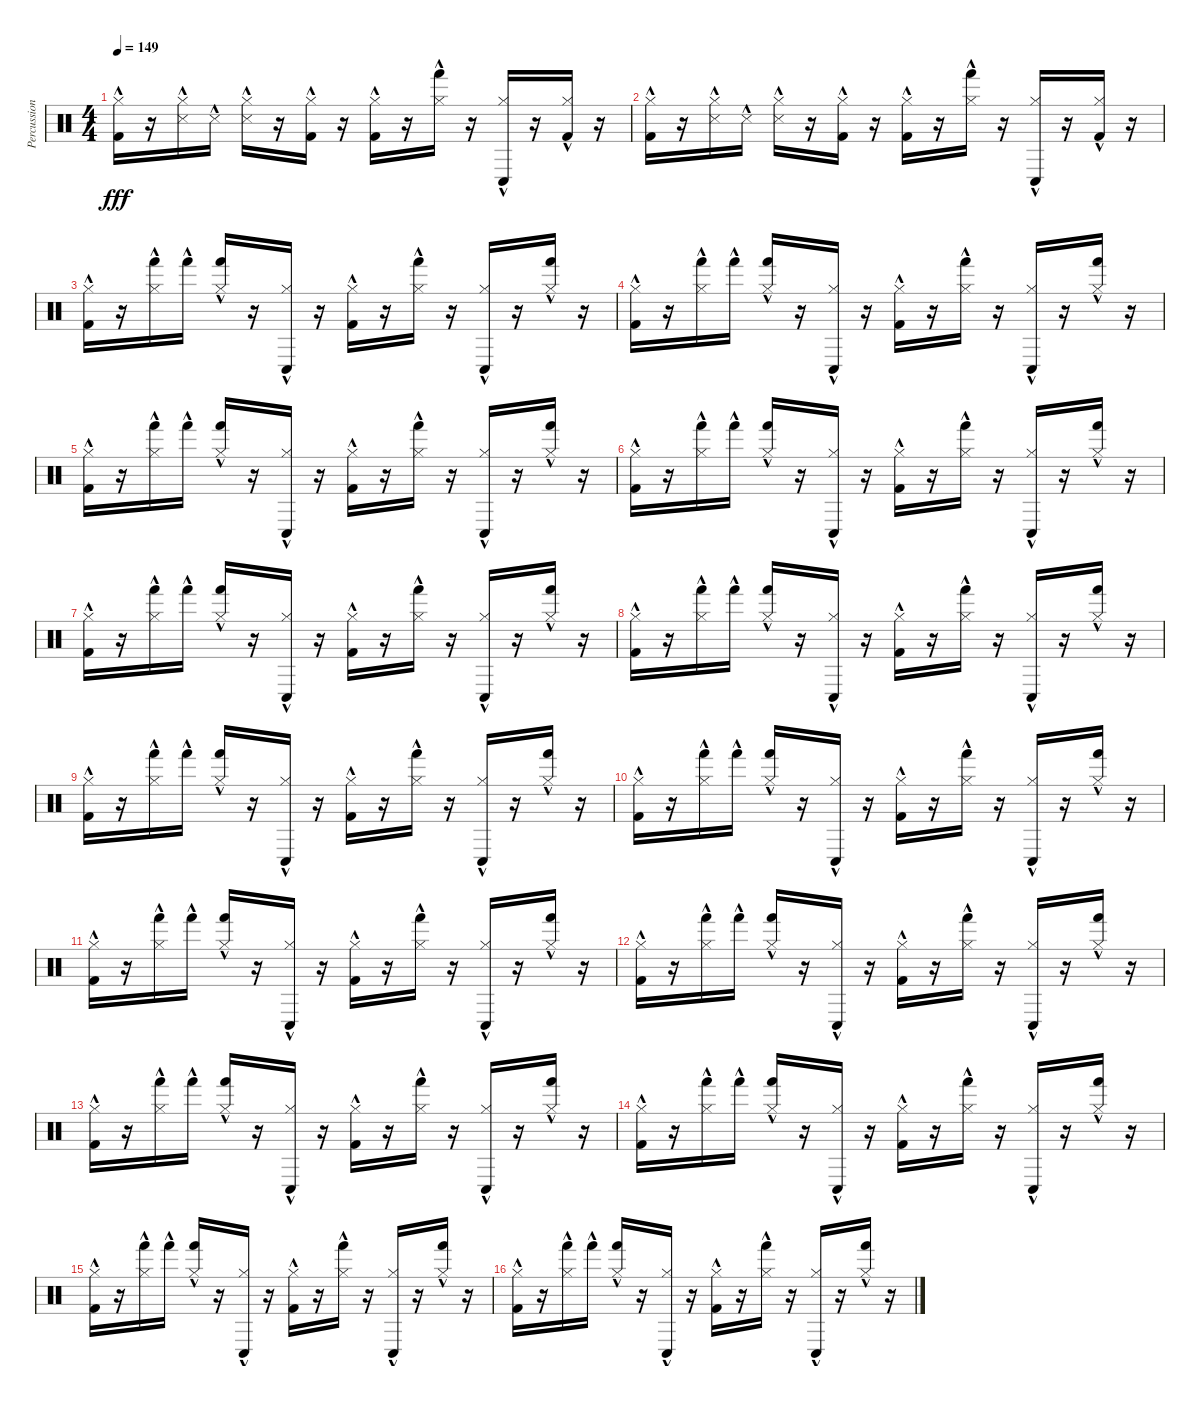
\track ("Percussion" "Percussion") {instrument percussion}
\staff {score}
\articulation defaults
\ts (4 4)
\tempo 149
\clef neutral
\ks c
("Hi-Hat (closed)"{hac} "Kick (hit) 2"{hac}).16{dy fff} r.16 ("Hi-Hat (closed)"{hac} "Snare (side stick) 3"{hac}).16 "Snare (side stick) 3"{hac}.16 ("Hi-Hat (closed)"{hac} "Snare (side stick) 3"{hac}).16 r.16 ("Hi-Hat (closed)"{hac} "Kick (hit) 2"{hac}).16 r.16 ("Hi-Hat (closed)"{hac} "Kick (hit) 2"{hac}).16 r.16 ("Hi-Hat (closed)"{hac} "Hand (hit)"{hac}).16 r.16 ("Hi-Hat (closed)"{hac} "Conga low (hit)"{hac}).16 r.16 ("Hi-Hat (closed)"{hac} "Kick (hit) 2"{hac}).16 r.16 |
("Hi-Hat (closed)"{hac} "Kick (hit) 2"{hac}).16 r.16 ("Hi-Hat (closed)"{hac} "Snare (side stick) 3"{hac}).16 "Snare (side stick) 3"{hac}.16 ("Hi-Hat (closed)"{hac} "Snare (side stick) 3"{hac}).16 r.16 ("Hi-Hat (closed)"{hac} "Kick (hit) 2"{hac}).16 r.16 ("Hi-Hat (closed)"{hac} "Kick (hit) 2"{hac}).16 r.16 ("Hi-Hat (closed)"{hac} "Hand (hit)"{hac}).16 r.16 ("Hi-Hat (closed)"{hac} "Conga low (hit)"{hac}).16 r.16 ("Hi-Hat (closed)"{hac} "Kick (hit) 2"{hac}).16 r.16 |
("Hi-Hat (closed)"{hac} "Kick (hit) 2"{hac}).16 r.16 ("Hi-Hat (closed)"{hac} "Hand (hit)"{hac}).16 "Hand (hit)"{hac}.16 ("Hi-Hat (closed)"{hac} "Hand (hit)"{hac}).16 r.16 ("Hi-Hat (closed)"{hac} "Conga low (hit)"{hac}).16 r.16 ("Hi-Hat (closed)"{hac} "Kick (hit) 2"{hac}).16 r.16 ("Hi-Hat (closed)"{hac} "Hand (hit)"{hac}).16 r.16 ("Hi-Hat (closed)"{hac} "Conga low (hit)"{hac}).16 r.16 ("Hi-Hat (closed)"{hac} "Hand (hit)"{hac}).16 r.16 |
("Hi-Hat (closed)"{hac} "Kick (hit) 2"{hac}).16 r.16 ("Hi-Hat (closed)"{hac} "Hand (hit)"{hac}).16 "Hand (hit)"{hac}.16 ("Hi-Hat (closed)"{hac} "Hand (hit)"{hac}).16 r.16 ("Hi-Hat (closed)"{hac} "Conga low (hit)"{hac}).16 r.16 ("Hi-Hat (closed)"{hac} "Kick (hit) 2"{hac}).16 r.16 ("Hi-Hat (closed)"{hac} "Hand (hit)"{hac}).16 r.16 ("Hi-Hat (closed)"{hac} "Conga low (hit)"{hac}).16 r.16 ("Hi-Hat (closed)"{hac} "Hand (hit)"{hac}).16 r.16 |
("Hi-Hat (closed)"{hac} "Kick (hit) 2"{hac}).16 r.16 ("Hi-Hat (closed)"{hac} "Hand (hit)"{hac}).16 "Hand (hit)"{hac}.16 ("Hi-Hat (closed)"{hac} "Hand (hit)"{hac}).16 r.16 ("Hi-Hat (closed)"{hac} "Conga low (hit)"{hac}).16 r.16 ("Hi-Hat (closed)"{hac} "Kick (hit) 2"{hac}).16 r.16 ("Hi-Hat (closed)"{hac} "Hand (hit)"{hac}).16 r.16 ("Hi-Hat (closed)"{hac} "Conga low (hit)"{hac}).16 r.16 ("Hi-Hat (closed)"{hac} "Hand (hit)"{hac}).16 r.16 |
("Hi-Hat (closed)"{hac} "Kick (hit) 2"{hac}).16 r.16 ("Hi-Hat (closed)"{hac} "Hand (hit)"{hac}).16 "Hand (hit)"{hac}.16 ("Hi-Hat (closed)"{hac} "Hand (hit)"{hac}).16 r.16 ("Hi-Hat (closed)"{hac} "Conga low (hit)"{hac}).16 r.16 ("Hi-Hat (closed)"{hac} "Kick (hit) 2"{hac}).16 r.16 ("Hi-Hat (closed)"{hac} "Hand (hit)"{hac}).16 r.16 ("Hi-Hat (closed)"{hac} "Conga low (hit)"{hac}).16 r.16 ("Hi-Hat (closed)"{hac} "Hand (hit)"{hac}).16 r.16 |
("Hi-Hat (closed)"{hac} "Kick (hit) 2"{hac}).16 r.16 ("Hi-Hat (closed)"{hac} "Hand (hit)"{hac}).16 "Hand (hit)"{hac}.16 ("Hi-Hat (closed)"{hac} "Hand (hit)"{hac}).16 r.16 ("Hi-Hat (closed)"{hac} "Conga low (hit)"{hac}).16 r.16 ("Hi-Hat (closed)"{hac} "Kick (hit) 2"{hac}).16 r.16 ("Hi-Hat (closed)"{hac} "Hand (hit)"{hac}).16 r.16 ("Hi-Hat (closed)"{hac} "Conga low (hit)"{hac}).16 r.16 ("Hi-Hat (closed)"{hac} "Hand (hit)"{hac}).16 r.16 |
("Hi-Hat (closed)"{hac} "Kick (hit) 2"{hac}).16 r.16 ("Hi-Hat (closed)"{hac} "Hand (hit)"{hac}).16 "Hand (hit)"{hac}.16 ("Hi-Hat (closed)"{hac} "Hand (hit)"{hac}).16 r.16 ("Hi-Hat (closed)"{hac} "Conga low (hit)"{hac}).16 r.16 ("Hi-Hat (closed)"{hac} "Kick (hit) 2"{hac}).16 r.16 ("Hi-Hat (closed)"{hac} "Hand (hit)"{hac}).16 r.16 ("Hi-Hat (closed)"{hac} "Conga low (hit)"{hac}).16 r.16 ("Hi-Hat (closed)"{hac} "Hand (hit)"{hac}).16 r.16 |
("Hi-Hat (closed)"{hac} "Kick (hit) 2"{hac}).16 r.16 ("Hi-Hat (closed)"{hac} "Hand (hit)"{hac}).16 "Hand (hit)"{hac}.16 ("Hi-Hat (closed)"{hac} "Hand (hit)"{hac}).16 r.16 ("Hi-Hat (closed)"{hac} "Conga low (hit)"{hac}).16 r.16 ("Hi-Hat (closed)"{hac} "Kick (hit) 2"{hac}).16 r.16 ("Hi-Hat (closed)"{hac} "Hand (hit)"{hac}).16 r.16 ("Hi-Hat (closed)"{hac} "Conga low (hit)"{hac}).16 r.16 ("Hi-Hat (closed)"{hac} "Hand (hit)"{hac}).16 r.16 |
("Hi-Hat (closed)"{hac} "Kick (hit) 2"{hac}).16 r.16 ("Hi-Hat (closed)"{hac} "Hand (hit)"{hac}).16 "Hand (hit)"{hac}.16 ("Hi-Hat (closed)"{hac} "Hand (hit)"{hac}).16 r.16 ("Hi-Hat (closed)"{hac} "Conga low (hit)"{hac}).16 r.16 ("Hi-Hat (closed)"{hac} "Kick (hit) 2"{hac}).16 r.16 ("Hi-Hat (closed)"{hac} "Hand (hit)"{hac}).16 r.16 ("Hi-Hat (closed)"{hac} "Conga low (hit)"{hac}).16 r.16 ("Hi-Hat (closed)"{hac} "Hand (hit)"{hac}).16 r.16 |
("Hi-Hat (closed)"{hac} "Kick (hit) 2"{hac}).16 r.16 ("Hi-Hat (closed)"{hac} "Hand (hit)"{hac}).16 "Hand (hit)"{hac}.16 ("Hi-Hat (closed)"{hac} "Hand (hit)"{hac}).16 r.16 ("Hi-Hat (closed)"{hac} "Conga low (hit)"{hac}).16 r.16 ("Hi-Hat (closed)"{hac} "Kick (hit) 2"{hac}).16 r.16 ("Hi-Hat (closed)"{hac} "Hand (hit)"{hac}).16 r.16 ("Hi-Hat (closed)"{hac} "Conga low (hit)"{hac}).16 r.16 ("Hi-Hat (closed)"{hac} "Hand (hit)"{hac}).16 r.16 |
("Hi-Hat (closed)"{hac} "Kick (hit) 2"{hac}).16 r.16 ("Hi-Hat (closed)"{hac} "Hand (hit)"{hac}).16 "Hand (hit)"{hac}.16 ("Hi-Hat (closed)"{hac} "Hand (hit)"{hac}).16 r.16 ("Hi-Hat (closed)"{hac} "Conga low (hit)"{hac}).16 r.16 ("Hi-Hat (closed)"{hac} "Kick (hit) 2"{hac}).16 r.16 ("Hi-Hat (closed)"{hac} "Hand (hit)"{hac}).16 r.16 ("Hi-Hat (closed)"{hac} "Conga low (hit)"{hac}).16 r.16 ("Hi-Hat (closed)"{hac} "Hand (hit)"{hac}).16 r.16 |
("Hi-Hat (closed)"{hac} "Kick (hit) 2"{hac}).16 r.16 ("Hi-Hat (closed)"{hac} "Hand (hit)"{hac}).16 "Hand (hit)"{hac}.16 ("Hi-Hat (closed)"{hac} "Hand (hit)"{hac}).16 r.16 ("Hi-Hat (closed)"{hac} "Conga low (hit)"{hac}).16 r.16 ("Hi-Hat (closed)"{hac} "Kick (hit) 2"{hac}).16 r.16 ("Hi-Hat (closed)"{hac} "Hand (hit)"{hac}).16 r.16 ("Hi-Hat (closed)"{hac} "Conga low (hit)"{hac}).16 r.16 ("Hi-Hat (closed)"{hac} "Hand (hit)"{hac}).16 r.16 |
("Hi-Hat (closed)"{hac} "Kick (hit) 2"{hac}).16 r.16 ("Hi-Hat (closed)"{hac} "Hand (hit)"{hac}).16 "Hand (hit)"{hac}.16 ("Hi-Hat (closed)"{hac} "Hand (hit)"{hac}).16 r.16 ("Hi-Hat (closed)"{hac} "Conga low (hit)"{hac}).16 r.16 ("Hi-Hat (closed)"{hac} "Kick (hit) 2"{hac}).16 r.16 ("Hi-Hat (closed)"{hac} "Hand (hit)"{hac}).16 r.16 ("Hi-Hat (closed)"{hac} "Conga low (hit)"{hac}).16 r.16 ("Hi-Hat (closed)"{hac} "Hand (hit)"{hac}).16 r.16 |
("Hi-Hat (closed)"{hac} "Kick (hit) 2"{hac}).16 r.16 ("Hi-Hat (closed)"{hac} "Hand (hit)"{hac}).16 "Hand (hit)"{hac}.16 ("Hi-Hat (closed)"{hac} "Hand (hit)"{hac}).16 r.16 ("Hi-Hat (closed)"{hac} "Conga low (hit)"{hac}).16 r.16 ("Hi-Hat (closed)"{hac} "Kick (hit) 2"{hac}).16 r.16 ("Hi-Hat (closed)"{hac} "Hand (hit)"{hac}).16 r.16 ("Hi-Hat (closed)"{hac} "Conga low (hit)"{hac}).16 r.16 ("Hi-Hat (closed)"{hac} "Hand (hit)"{hac}).16 r.16 |
("Hi-Hat (closed)"{hac} "Kick (hit) 2"{hac}).16 r.16 ("Hi-Hat (closed)"{hac} "Hand (hit)"{hac}).16 "Hand (hit)"{hac}.16 ("Hi-Hat (closed)"{hac} "Hand (hit)"{hac}).16 r.16 ("Hi-Hat (closed)"{hac} "Conga low (hit)"{hac}).16 r.16 ("Hi-Hat (closed)"{hac} "Kick (hit) 2"{hac}).16 r.16 ("Hi-Hat (closed)"{hac} "Hand (hit)"{hac}).16 r.16 ("Hi-Hat (closed)"{hac} "Conga low (hit)"{hac}).16 r.16 ("Hi-Hat (closed)"{hac} "Hand (hit)"{hac}).16 r.16
